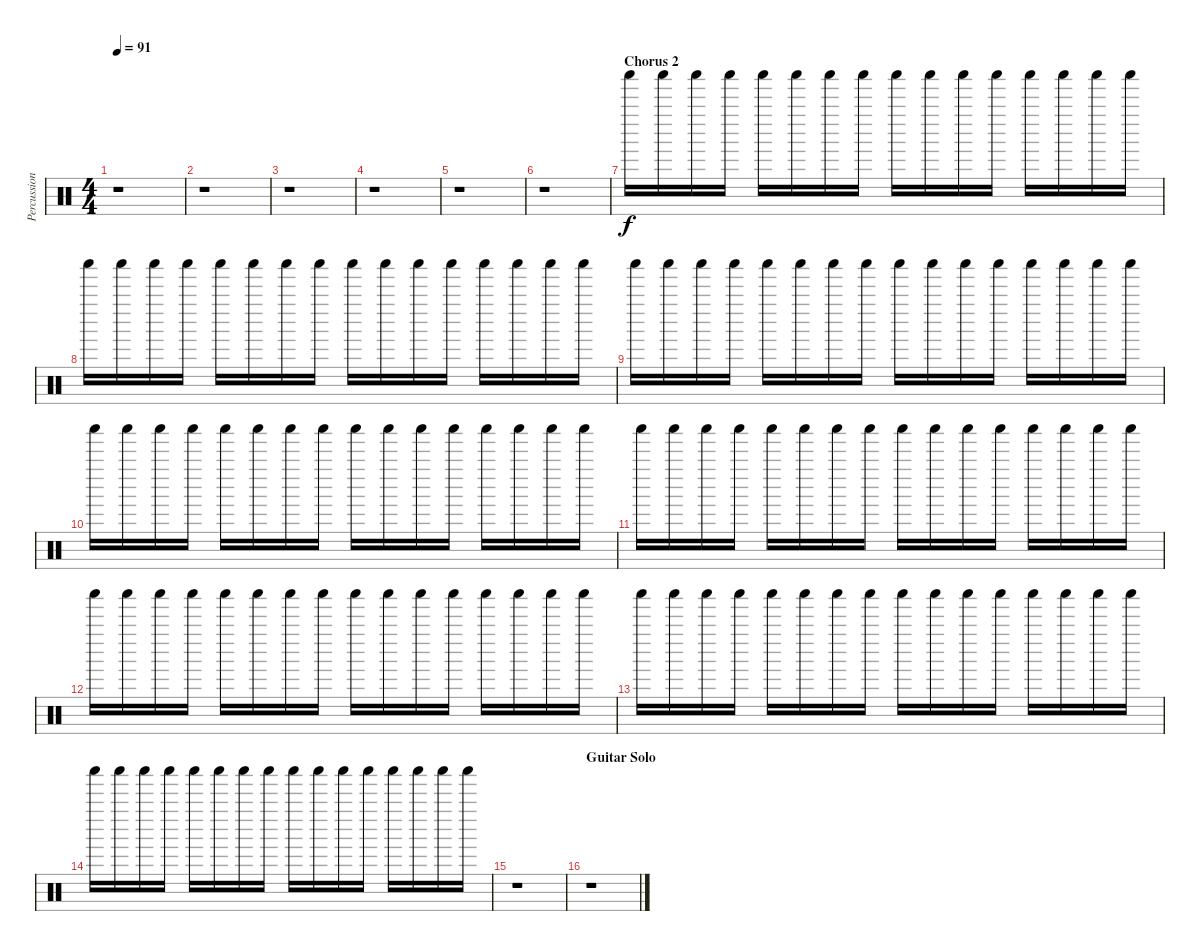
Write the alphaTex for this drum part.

\track ("Percussions" "Percussion") {instrument percussion}
\staff {score}
\articulation defaults
\ts (4 4)
\tempo 91
\clef neutral
\ks c
r.1{dy f} |
r.1 |
r.1 |
r.1 |
r.1 |
r.1 |
\section ("" "Chorus 2")
"Shaker (hit)".16 "Shaker (hit)".16 "Shaker (hit)".16 "Shaker (hit)".16 "Shaker (hit)".16 "Shaker (hit)".16 "Shaker (hit)".16 "Shaker (hit)".16 "Shaker (hit)".16 "Shaker (hit)".16 "Shaker (hit)".16 "Shaker (hit)".16 "Shaker (hit)".16 "Shaker (hit)".16 "Shaker (hit)".16 "Shaker (hit)".16 |
"Shaker (hit)".16 "Shaker (hit)".16 "Shaker (hit)".16 "Shaker (hit)".16 "Shaker (hit)".16 "Shaker (hit)".16 "Shaker (hit)".16 "Shaker (hit)".16 "Shaker (hit)".16 "Shaker (hit)".16 "Shaker (hit)".16 "Shaker (hit)".16 "Shaker (hit)".16 "Shaker (hit)".16 "Shaker (hit)".16 "Shaker (hit)".16 |
"Shaker (hit)".16 "Shaker (hit)".16 "Shaker (hit)".16 "Shaker (hit)".16 "Shaker (hit)".16 "Shaker (hit)".16 "Shaker (hit)".16 "Shaker (hit)".16 "Shaker (hit)".16 "Shaker (hit)".16 "Shaker (hit)".16 "Shaker (hit)".16 "Shaker (hit)".16 "Shaker (hit)".16 "Shaker (hit)".16 "Shaker (hit)".16 |
"Shaker (hit)".16 "Shaker (hit)".16 "Shaker (hit)".16 "Shaker (hit)".16 "Shaker (hit)".16 "Shaker (hit)".16 "Shaker (hit)".16 "Shaker (hit)".16 "Shaker (hit)".16 "Shaker (hit)".16 "Shaker (hit)".16 "Shaker (hit)".16 "Shaker (hit)".16 "Shaker (hit)".16 "Shaker (hit)".16 "Shaker (hit)".16 |
"Shaker (hit)".16 "Shaker (hit)".16 "Shaker (hit)".16 "Shaker (hit)".16 "Shaker (hit)".16 "Shaker (hit)".16 "Shaker (hit)".16 "Shaker (hit)".16 "Shaker (hit)".16 "Shaker (hit)".16 "Shaker (hit)".16 "Shaker (hit)".16 "Shaker (hit)".16 "Shaker (hit)".16 "Shaker (hit)".16 "Shaker (hit)".16 |
"Shaker (hit)".16 "Shaker (hit)".16 "Shaker (hit)".16 "Shaker (hit)".16 "Shaker (hit)".16 "Shaker (hit)".16 "Shaker (hit)".16 "Shaker (hit)".16 "Shaker (hit)".16 "Shaker (hit)".16 "Shaker (hit)".16 "Shaker (hit)".16 "Shaker (hit)".16 "Shaker (hit)".16 "Shaker (hit)".16 "Shaker (hit)".16 |
"Shaker (hit)".16 "Shaker (hit)".16 "Shaker (hit)".16 "Shaker (hit)".16 "Shaker (hit)".16 "Shaker (hit)".16 "Shaker (hit)".16 "Shaker (hit)".16 "Shaker (hit)".16 "Shaker (hit)".16 "Shaker (hit)".16 "Shaker (hit)".16 "Shaker (hit)".16 "Shaker (hit)".16 "Shaker (hit)".16 "Shaker (hit)".16 |
"Shaker (hit)".16 "Shaker (hit)".16 "Shaker (hit)".16 "Shaker (hit)".16 "Shaker (hit)".16 "Shaker (hit)".16 "Shaker (hit)".16 "Shaker (hit)".16 "Shaker (hit)".16 "Shaker (hit)".16 "Shaker (hit)".16 "Shaker (hit)".16 "Shaker (hit)".16 "Shaker (hit)".16 "Shaker (hit)".16 "Shaker (hit)".16 |
r.1 |
\section ("" "Guitar Solo")
r.1
